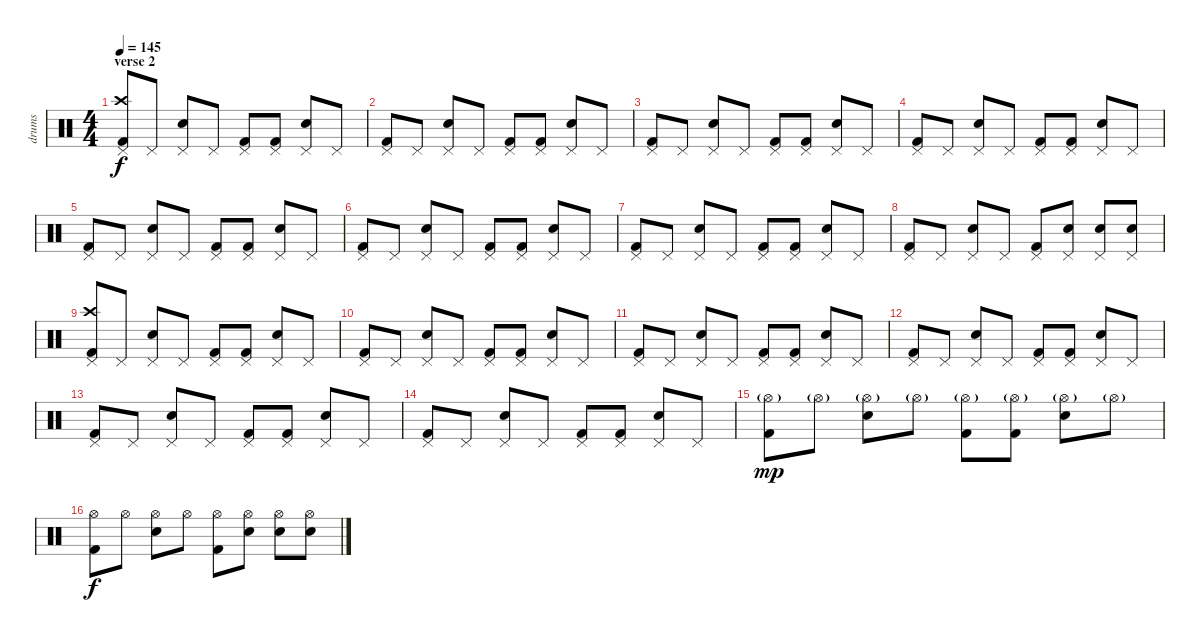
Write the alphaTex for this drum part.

\track ("drums" "drums") {instrument percussion}
\staff {score}
\articulation defaults
\ts (4 4)
\section ("" "verse 2")
\tempo 145
\clef neutral
\ks c
("Kick (hit) 2" "Crash high (hit)" "Pedal Hi-Hat (hit)").8{dy f} "Pedal Hi-Hat (hit)".8 ("Snare (hit) 2" "Pedal Hi-Hat (hit)").8 "Pedal Hi-Hat (hit)".8 ("Kick (hit) 2" "Pedal Hi-Hat (hit)").8 ("Kick (hit) 2" "Pedal Hi-Hat (hit)").8 ("Snare (hit) 2" "Pedal Hi-Hat (hit)").8 "Pedal Hi-Hat (hit)".8 |
("Kick (hit) 2" "Pedal Hi-Hat (hit)").8 "Pedal Hi-Hat (hit)".8 ("Snare (hit) 2" "Pedal Hi-Hat (hit)").8 "Pedal Hi-Hat (hit)".8 ("Kick (hit) 2" "Pedal Hi-Hat (hit)").8 ("Kick (hit) 2" "Pedal Hi-Hat (hit)").8 ("Snare (hit) 2" "Pedal Hi-Hat (hit)").8 "Pedal Hi-Hat (hit)".8 |
("Kick (hit) 2" "Pedal Hi-Hat (hit)").8 "Pedal Hi-Hat (hit)".8 ("Snare (hit) 2" "Pedal Hi-Hat (hit)").8 "Pedal Hi-Hat (hit)".8 ("Kick (hit) 2" "Pedal Hi-Hat (hit)").8 ("Kick (hit) 2" "Pedal Hi-Hat (hit)").8 ("Snare (hit) 2" "Pedal Hi-Hat (hit)").8 "Pedal Hi-Hat (hit)".8 |
("Kick (hit) 2" "Pedal Hi-Hat (hit)").8 "Pedal Hi-Hat (hit)".8 ("Snare (hit) 2" "Pedal Hi-Hat (hit)").8 "Pedal Hi-Hat (hit)".8 ("Kick (hit) 2" "Pedal Hi-Hat (hit)").8 ("Kick (hit) 2" "Pedal Hi-Hat (hit)").8 ("Snare (hit) 2" "Pedal Hi-Hat (hit)").8 "Pedal Hi-Hat (hit)".8 |
("Kick (hit) 2" "Pedal Hi-Hat (hit)").8 "Pedal Hi-Hat (hit)".8 ("Snare (hit) 2" "Pedal Hi-Hat (hit)").8 "Pedal Hi-Hat (hit)".8 ("Kick (hit) 2" "Pedal Hi-Hat (hit)").8 ("Kick (hit) 2" "Pedal Hi-Hat (hit)").8 ("Snare (hit) 2" "Pedal Hi-Hat (hit)").8 "Pedal Hi-Hat (hit)".8 |
("Kick (hit) 2" "Pedal Hi-Hat (hit)").8 "Pedal Hi-Hat (hit)".8 ("Snare (hit) 2" "Pedal Hi-Hat (hit)").8 "Pedal Hi-Hat (hit)".8 ("Kick (hit) 2" "Pedal Hi-Hat (hit)").8 ("Kick (hit) 2" "Pedal Hi-Hat (hit)").8 ("Snare (hit) 2" "Pedal Hi-Hat (hit)").8 "Pedal Hi-Hat (hit)".8 |
("Kick (hit) 2" "Pedal Hi-Hat (hit)").8 "Pedal Hi-Hat (hit)".8 ("Snare (hit) 2" "Pedal Hi-Hat (hit)").8 "Pedal Hi-Hat (hit)".8 ("Kick (hit) 2" "Pedal Hi-Hat (hit)").8 ("Kick (hit) 2" "Pedal Hi-Hat (hit)").8 ("Snare (hit) 2" "Pedal Hi-Hat (hit)").8 "Pedal Hi-Hat (hit)".8 |
("Kick (hit) 2" "Pedal Hi-Hat (hit)").8 "Pedal Hi-Hat (hit)".8 ("Snare (hit) 2" "Pedal Hi-Hat (hit)").8 "Pedal Hi-Hat (hit)".8 ("Kick (hit) 2" "Pedal Hi-Hat (hit)").8 ("Snare (hit) 2" "Pedal Hi-Hat (hit)").8 ("Snare (hit) 2" "Pedal Hi-Hat (hit)").8 ("Snare (hit) 2" "Pedal Hi-Hat (hit)").8 |
("Kick (hit) 2" "Crash high (hit)" "Pedal Hi-Hat (hit)").8 "Pedal Hi-Hat (hit)".8 ("Snare (hit) 2" "Pedal Hi-Hat (hit)").8 "Pedal Hi-Hat (hit)".8 ("Kick (hit) 2" "Pedal Hi-Hat (hit)").8 ("Kick (hit) 2" "Pedal Hi-Hat (hit)").8 ("Snare (hit) 2" "Pedal Hi-Hat (hit)").8 "Pedal Hi-Hat (hit)".8 |
("Kick (hit) 2" "Pedal Hi-Hat (hit)").8 "Pedal Hi-Hat (hit)".8 ("Snare (hit) 2" "Pedal Hi-Hat (hit)").8 "Pedal Hi-Hat (hit)".8 ("Kick (hit) 2" "Pedal Hi-Hat (hit)").8 ("Kick (hit) 2" "Pedal Hi-Hat (hit)").8 ("Snare (hit) 2" "Pedal Hi-Hat (hit)").8 "Pedal Hi-Hat (hit)".8 |
("Kick (hit) 2" "Pedal Hi-Hat (hit)").8 "Pedal Hi-Hat (hit)".8 ("Snare (hit) 2" "Pedal Hi-Hat (hit)").8 "Pedal Hi-Hat (hit)".8 ("Kick (hit) 2" "Pedal Hi-Hat (hit)").8 ("Kick (hit) 2" "Pedal Hi-Hat (hit)").8 ("Snare (hit) 2" "Pedal Hi-Hat (hit)").8 "Pedal Hi-Hat (hit)".8 |
("Kick (hit) 2" "Pedal Hi-Hat (hit)").8 "Pedal Hi-Hat (hit)".8 ("Snare (hit) 2" "Pedal Hi-Hat (hit)").8 "Pedal Hi-Hat (hit)".8 ("Kick (hit) 2" "Pedal Hi-Hat (hit)").8 ("Kick (hit) 2" "Pedal Hi-Hat (hit)").8 ("Snare (hit) 2" "Pedal Hi-Hat (hit)").8 "Pedal Hi-Hat (hit)".8 |
("Kick (hit) 2" "Pedal Hi-Hat (hit)").8 "Pedal Hi-Hat (hit)".8 ("Snare (hit) 2" "Pedal Hi-Hat (hit)").8 "Pedal Hi-Hat (hit)".8 ("Kick (hit) 2" "Pedal Hi-Hat (hit)").8 ("Kick (hit) 2" "Pedal Hi-Hat (hit)").8 ("Snare (hit) 2" "Pedal Hi-Hat (hit)").8 "Pedal Hi-Hat (hit)".8 |
("Kick (hit) 2" "Pedal Hi-Hat (hit)").8 "Pedal Hi-Hat (hit)".8 ("Snare (hit) 2" "Pedal Hi-Hat (hit)").8 "Pedal Hi-Hat (hit)".8 ("Kick (hit) 2" "Pedal Hi-Hat (hit)").8 ("Kick (hit) 2" "Pedal Hi-Hat (hit)").8 ("Snare (hit) 2" "Pedal Hi-Hat (hit)").8 "Pedal Hi-Hat (hit)".8 |
("Kick (hit) 2" "Hi-Hat (open)"{g}).8{dy mp} "Hi-Hat (open)"{g}.8 ("Snare (hit) 2" "Hi-Hat (open)"{g}).8 "Hi-Hat (open)"{g}.8 ("Kick (hit) 2" "Hi-Hat (open)"{g}).8 ("Kick (hit) 2" "Hi-Hat (open)"{g}).8 ("Snare (hit) 2" "Hi-Hat (open)"{g}).8 "Hi-Hat (open)"{g}.8 |
("Kick (hit) 2" "Hi-Hat (open)").8{dy f} "Hi-Hat (open)".8 ("Snare (hit) 2" "Hi-Hat (open)").8 "Hi-Hat (open)".8 ("Kick (hit) 2" "Hi-Hat (open)").8 ("Snare (hit) 2" "Hi-Hat (open)").8 ("Snare (hit) 2" "Hi-Hat (open)").8 ("Snare (hit) 2" "Hi-Hat (open)").8
